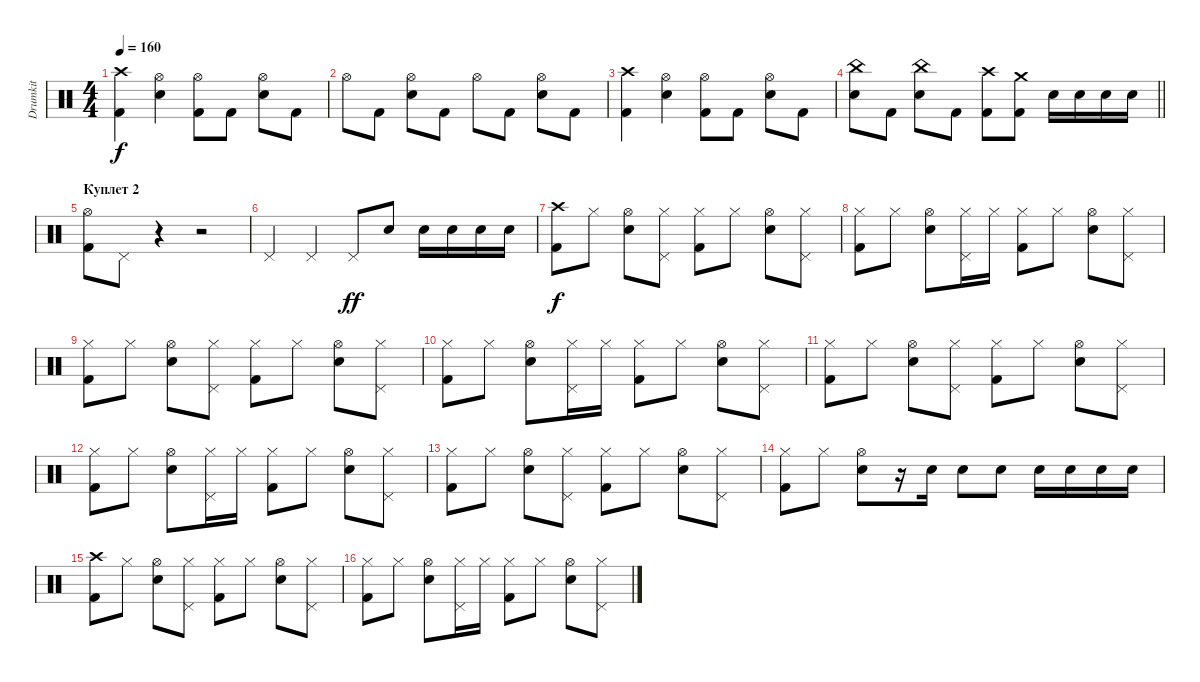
\track ("Drumkit" "Drumkit") {instrument percussion}
\staff {score}
\articulation defaults
\ts (4 4)
\tempo 160
\clef neutral
\ks c
("Crash high (hit)" "Kick (hit) 2").4{dy f} ("Hi-Hat (open)" "Electric Snare (hit)").4 ("Hi-Hat (open)" "Kick (hit) 2").8 "Kick (hit) 2".8 ("Hi-Hat (open)" "Electric Snare (hit)").8 "Kick (hit) 2".8 |
"Hi-Hat (open)".8 "Kick (hit) 2".8 ("Hi-Hat (open)" "Electric Snare (hit)").8 "Kick (hit) 2".8 "Hi-Hat (open)".8 "Kick (hit) 2".8 ("Hi-Hat (open)" "Electric Snare (hit)").8 "Kick (hit) 2".8 |
("Crash high (hit)" "Kick (hit) 2").4 ("Hi-Hat (open)" "Electric Snare (hit)").4 ("Hi-Hat (open)" "Kick (hit) 2").8 "Kick (hit) 2".8 ("Hi-Hat (open)" "Electric Snare (hit)").8 "Kick (hit) 2".8 |
\barLineRight lightlight
("China (hit)" "Electric Snare (hit)").8 "Kick (hit) 2".8 ("China (hit)" "Electric Snare (hit)").8 "Kick (hit) 2".8 ("Crash high (hit)" "Kick (hit) 2").8 ("Crash medium (hit)" "Kick (hit) 2").8 "Electric Snare (hit)".16 "Electric Snare (hit)".16 "Electric Snare (hit)".16 "Electric Snare (hit)".16 |
\section ("" "Куплет 2")
("Hi-Hat (open)" "Kick (hit) 2").8 "Pedal Hi-Hat (hit)".8 r.4 r.2 |
"Pedal Hi-Hat (hit)".4 "Pedal Hi-Hat (hit)".4 "Pedal Hi-Hat (hit)".8{dy ff} "Electric Snare (hit)".8 "Electric Snare (hit)".16 "Electric Snare (hit)".16 "Electric Snare (hit)".16 "Electric Snare (hit)".16 |
("Crash high (hit)" "Kick (hit) 2").8{dy f} "Hi-Hat (closed)".8 ("Hi-Hat (open)" "Electric Snare (hit)").8 ("Hi-Hat (closed)" "Pedal Hi-Hat (hit)").8 ("Hi-Hat (closed)" "Kick (hit) 2").8 "Hi-Hat (closed)".8 ("Hi-Hat (open)" "Electric Snare (hit)").8 ("Hi-Hat (closed)" "Pedal Hi-Hat (hit)").8 |
("Hi-Hat (closed)" "Kick (hit) 2").8 "Hi-Hat (closed)".8 ("Hi-Hat (open)" "Electric Snare (hit)").8 ("Hi-Hat (closed)" "Pedal Hi-Hat (hit)").16 "Hi-Hat (closed)".16 ("Hi-Hat (closed)" "Kick (hit) 2").8 "Hi-Hat (closed)".8 ("Hi-Hat (open)" "Electric Snare (hit)").8 ("Hi-Hat (closed)" "Pedal Hi-Hat (hit)").8 |
("Hi-Hat (closed)" "Kick (hit) 2").8 "Hi-Hat (closed)".8 ("Hi-Hat (open)" "Electric Snare (hit)").8 ("Hi-Hat (closed)" "Pedal Hi-Hat (hit)").8 ("Hi-Hat (closed)" "Kick (hit) 2").8 "Hi-Hat (closed)".8 ("Hi-Hat (open)" "Electric Snare (hit)").8 ("Hi-Hat (closed)" "Pedal Hi-Hat (hit)").8 |
("Hi-Hat (closed)" "Kick (hit) 2").8 "Hi-Hat (closed)".8 ("Hi-Hat (open)" "Electric Snare (hit)").8 ("Hi-Hat (closed)" "Pedal Hi-Hat (hit)").16 "Hi-Hat (closed)".16 ("Hi-Hat (closed)" "Kick (hit) 2").8 "Hi-Hat (closed)".8 ("Hi-Hat (open)" "Electric Snare (hit)").8 ("Hi-Hat (closed)" "Pedal Hi-Hat (hit)").8 |
("Hi-Hat (closed)" "Kick (hit) 2").8 "Hi-Hat (closed)".8 ("Hi-Hat (open)" "Electric Snare (hit)").8 ("Hi-Hat (closed)" "Pedal Hi-Hat (hit)").8 ("Hi-Hat (closed)" "Kick (hit) 2").8 "Hi-Hat (closed)".8 ("Hi-Hat (open)" "Electric Snare (hit)").8 ("Hi-Hat (closed)" "Pedal Hi-Hat (hit)").8 |
("Hi-Hat (closed)" "Kick (hit) 2").8 "Hi-Hat (closed)".8 ("Hi-Hat (open)" "Electric Snare (hit)").8 ("Hi-Hat (closed)" "Pedal Hi-Hat (hit)").16 "Hi-Hat (closed)".16 ("Hi-Hat (closed)" "Kick (hit) 2").8 "Hi-Hat (closed)".8 ("Hi-Hat (open)" "Electric Snare (hit)").8 ("Hi-Hat (closed)" "Pedal Hi-Hat (hit)").8 |
("Hi-Hat (closed)" "Kick (hit) 2").8 "Hi-Hat (closed)".8 ("Hi-Hat (open)" "Electric Snare (hit)").8 ("Hi-Hat (closed)" "Pedal Hi-Hat (hit)").8 ("Hi-Hat (closed)" "Kick (hit) 2").8 "Hi-Hat (closed)".8 ("Hi-Hat (open)" "Electric Snare (hit)").8 ("Hi-Hat (closed)" "Pedal Hi-Hat (hit)").8 |
("Hi-Hat (closed)" "Kick (hit) 2").8 "Hi-Hat (closed)".8 ("Hi-Hat (open)" "Electric Snare (hit)").8 r.16 "Electric Snare (hit)".16 "Electric Snare (hit)".8 "Electric Snare (hit)".8 "Electric Snare (hit)".16 "Electric Snare (hit)".16 "Electric Snare (hit)".16 "Electric Snare (hit)".16 |
("Crash high (hit)" "Kick (hit) 2").8 "Hi-Hat (closed)".8 ("Hi-Hat (open)" "Electric Snare (hit)").8 ("Hi-Hat (closed)" "Pedal Hi-Hat (hit)").8 ("Hi-Hat (closed)" "Kick (hit) 2").8 "Hi-Hat (closed)".8 ("Hi-Hat (open)" "Electric Snare (hit)").8 ("Hi-Hat (closed)" "Pedal Hi-Hat (hit)").8 |
("Hi-Hat (closed)" "Kick (hit) 2").8 "Hi-Hat (closed)".8 ("Hi-Hat (open)" "Electric Snare (hit)").8 ("Hi-Hat (closed)" "Pedal Hi-Hat (hit)").16 "Hi-Hat (closed)".16 ("Hi-Hat (closed)" "Kick (hit) 2").8 "Hi-Hat (closed)".8 ("Hi-Hat (open)" "Electric Snare (hit)").8 ("Hi-Hat (closed)" "Pedal Hi-Hat (hit)").8
